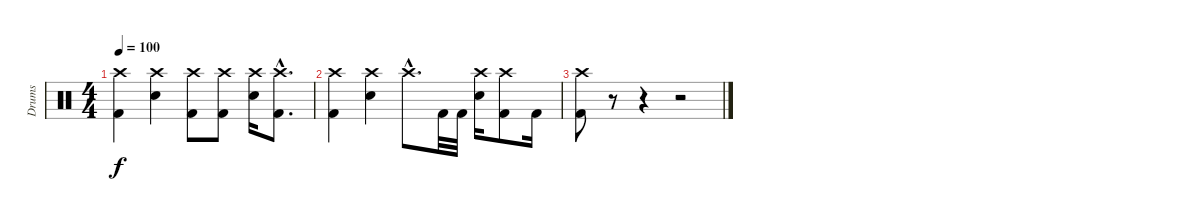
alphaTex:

\track ("Drums" "Drums") {instrument percussion}
\staff {score}
\articulation defaults
\ts (4 4)
\tempo 100
\clef neutral
\ks c
("Crash high (hit)" "Kick (hit) 2").4{dy f} ("Crash high (hit)" "Electric Snare (hit)").4 ("Crash high (hit)" "Kick (hit) 2").8 ("Crash high (hit)" "Kick (hit) 2").8 ("Crash high (hit)" "Electric Snare (hit)").16 ("Crash high (hit)"{hac} "Kick (hit) 2"{hac}).8{d} |
("Crash high (hit)" "Kick (hit) 2").4 ("Crash high (hit)" "Electric Snare (hit)").4 "Crash high (hit)"{hac}.8{d} "Kick (hit) 2".32 "Kick (hit) 2".32 ("Crash high (hit)" "Electric Snare (hit)").16 ("Crash high (hit)" "Kick (hit) 2").8 "Kick (hit) 2".16 |
("Crash high (hit)" "Kick (hit) 2").8 r.8 r.4 r.2
